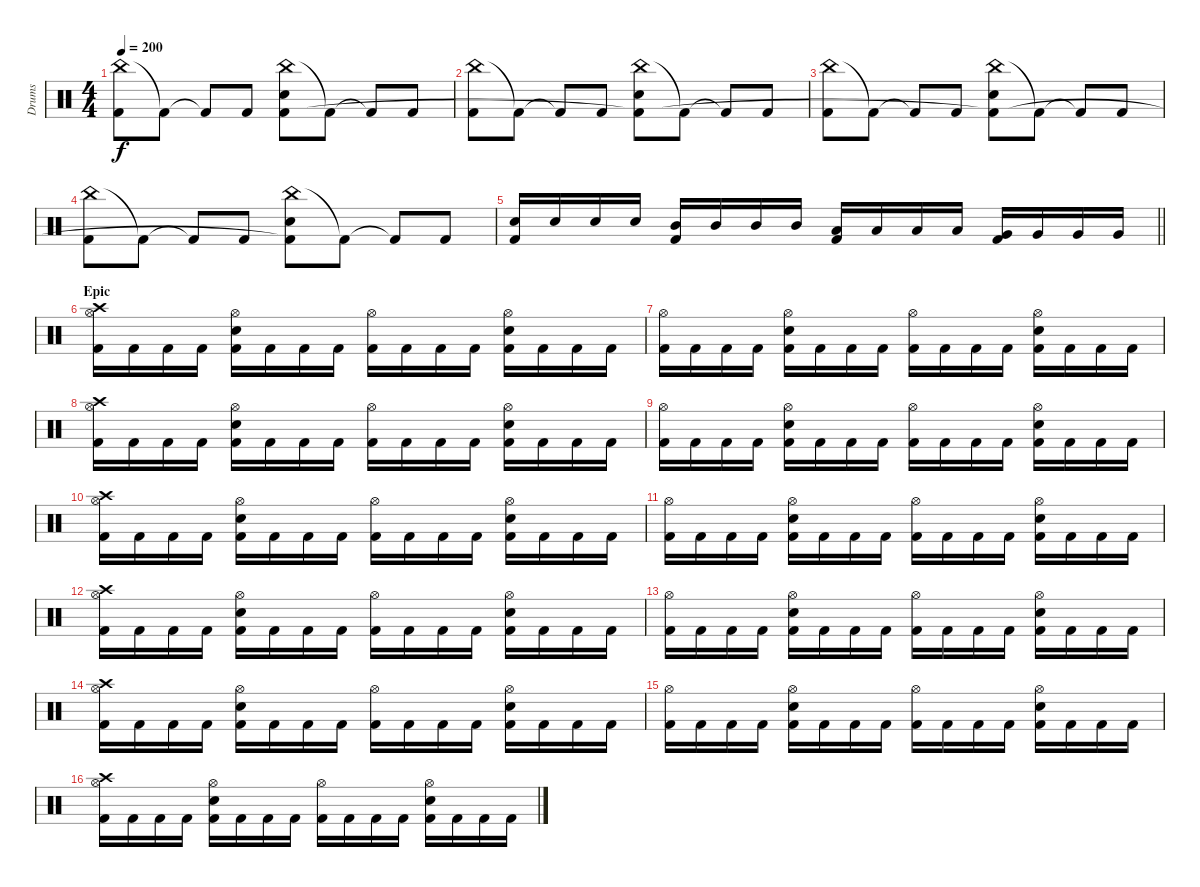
\track ("Drums" "Drums") {instrument percussion}
\staff {score}
\articulation defaults
\ts (4 4)
\tempo 200
\clef neutral
\ks c
("China (hit)" "Kick (hit) 2").8{dy f} "Kick (hit) 2"{t}.8 "Kick (hit) 2"{t}.8 "Kick (hit) 2".8 ("China (hit)" "Snare (hit) 2" "Kick (hit) 2"{t}).8 "Kick (hit) 2"{t}.8 "Kick (hit) 2"{t}.8 "Kick (hit) 2".8 |
("China (hit)" "Kick (hit) 2").8 "Kick (hit) 2"{t}.8 "Kick (hit) 2"{t}.8 "Kick (hit) 2".8 ("China (hit)" "Snare (hit) 2" "Kick (hit) 2"{t}).8 "Kick (hit) 2"{t}.8 "Kick (hit) 2"{t}.8 "Kick (hit) 2".8 |
("China (hit)" "Kick (hit) 2").8 "Kick (hit) 2"{t}.8 "Kick (hit) 2"{t}.8 "Kick (hit) 2".8 ("China (hit)" "Snare (hit) 2" "Kick (hit) 2"{t}).8 "Kick (hit) 2"{t}.8 "Kick (hit) 2"{t}.8 "Kick (hit) 2".8 |
("China (hit)" "Kick (hit) 2").8 "Kick (hit) 2"{t}.8 "Kick (hit) 2"{t}.8 "Kick (hit) 2".8 ("China (hit)" "Snare (hit) 2" "Kick (hit) 2"{t}).8 "Kick (hit) 2"{t}.8 "Kick (hit) 2"{t}.8 "Kick (hit) 2".8 |
\barLineRight lightlight
("Snare (hit) 2" "Kick (hit) 2").16 "Snare (hit) 2".16 "Snare (hit) 2".16 "Snare (hit) 2".16 ("Mid Tom (hit)" "Kick (hit) 2").16 "Mid Tom (hit)".16 "Mid Tom (hit)".16 "Mid Tom (hit)".16 ("Low Tom (hit)" "Kick (hit) 2").16 "Low Tom (hit)".16 "Low Tom (hit)".16 "Low Tom (hit)".16 ("Very Low Tom (hit)" "Kick (hit) 2").16 "Very Low Tom (hit)".16 "Very Low Tom (hit)".16 "Very Low Tom (hit)".16 |
\section ("" "Epic")
("Crash high (hit)" "Hi-Hat (open)" "Kick (hit) 2").16 "Kick (hit) 2".16 "Kick (hit) 2".16 "Kick (hit) 2".16 ("Hi-Hat (open)" "Snare (hit) 2" "Kick (hit) 2").16 "Kick (hit) 2".16 "Kick (hit) 2".16 "Kick (hit) 2".16 ("Hi-Hat (open)" "Kick (hit) 2").16 "Kick (hit) 2".16 "Kick (hit) 2".16 "Kick (hit) 2".16 ("Hi-Hat (open)" "Snare (hit) 2" "Kick (hit) 2").16 "Kick (hit) 2".16 "Kick (hit) 2".16 "Kick (hit) 2".16 |
("Hi-Hat (open)" "Kick (hit) 2").16 "Kick (hit) 2".16 "Kick (hit) 2".16 "Kick (hit) 2".16 ("Hi-Hat (open)" "Snare (hit) 2" "Kick (hit) 2").16 "Kick (hit) 2".16 "Kick (hit) 2".16 "Kick (hit) 2".16 ("Hi-Hat (open)" "Kick (hit) 2").16 "Kick (hit) 2".16 "Kick (hit) 2".16 "Kick (hit) 2".16 ("Hi-Hat (open)" "Snare (hit) 2" "Kick (hit) 2").16 "Kick (hit) 2".16 "Kick (hit) 2".16 "Kick (hit) 2".16 |
("Crash high (hit)" "Hi-Hat (open)" "Kick (hit) 2").16 "Kick (hit) 2".16 "Kick (hit) 2".16 "Kick (hit) 2".16 ("Hi-Hat (open)" "Snare (hit) 2" "Kick (hit) 2").16 "Kick (hit) 2".16 "Kick (hit) 2".16 "Kick (hit) 2".16 ("Hi-Hat (open)" "Kick (hit) 2").16 "Kick (hit) 2".16 "Kick (hit) 2".16 "Kick (hit) 2".16 ("Hi-Hat (open)" "Snare (hit) 2" "Kick (hit) 2").16 "Kick (hit) 2".16 "Kick (hit) 2".16 "Kick (hit) 2".16 |
("Hi-Hat (open)" "Kick (hit) 2").16 "Kick (hit) 2".16 "Kick (hit) 2".16 "Kick (hit) 2".16 ("Hi-Hat (open)" "Snare (hit) 2" "Kick (hit) 2").16 "Kick (hit) 2".16 "Kick (hit) 2".16 "Kick (hit) 2".16 ("Hi-Hat (open)" "Kick (hit) 2").16 "Kick (hit) 2".16 "Kick (hit) 2".16 "Kick (hit) 2".16 ("Hi-Hat (open)" "Snare (hit) 2" "Kick (hit) 2").16 "Kick (hit) 2".16 "Kick (hit) 2".16 "Kick (hit) 2".16 |
("Crash high (hit)" "Hi-Hat (open)" "Kick (hit) 2").16 "Kick (hit) 2".16 "Kick (hit) 2".16 "Kick (hit) 2".16 ("Hi-Hat (open)" "Snare (hit) 2" "Kick (hit) 2").16 "Kick (hit) 2".16 "Kick (hit) 2".16 "Kick (hit) 2".16 ("Hi-Hat (open)" "Kick (hit) 2").16 "Kick (hit) 2".16 "Kick (hit) 2".16 "Kick (hit) 2".16 ("Hi-Hat (open)" "Snare (hit) 2" "Kick (hit) 2").16 "Kick (hit) 2".16 "Kick (hit) 2".16 "Kick (hit) 2".16 |
("Hi-Hat (open)" "Kick (hit) 2").16 "Kick (hit) 2".16 "Kick (hit) 2".16 "Kick (hit) 2".16 ("Hi-Hat (open)" "Snare (hit) 2" "Kick (hit) 2").16 "Kick (hit) 2".16 "Kick (hit) 2".16 "Kick (hit) 2".16 ("Hi-Hat (open)" "Kick (hit) 2").16 "Kick (hit) 2".16 "Kick (hit) 2".16 "Kick (hit) 2".16 ("Hi-Hat (open)" "Snare (hit) 2" "Kick (hit) 2").16 "Kick (hit) 2".16 "Kick (hit) 2".16 "Kick (hit) 2".16 |
("Crash high (hit)" "Hi-Hat (open)" "Kick (hit) 2").16 "Kick (hit) 2".16 "Kick (hit) 2".16 "Kick (hit) 2".16 ("Hi-Hat (open)" "Snare (hit) 2" "Kick (hit) 2").16 "Kick (hit) 2".16 "Kick (hit) 2".16 "Kick (hit) 2".16 ("Hi-Hat (open)" "Kick (hit) 2").16 "Kick (hit) 2".16 "Kick (hit) 2".16 "Kick (hit) 2".16 ("Hi-Hat (open)" "Snare (hit) 2" "Kick (hit) 2").16 "Kick (hit) 2".16 "Kick (hit) 2".16 "Kick (hit) 2".16 |
("Hi-Hat (open)" "Kick (hit) 2").16 "Kick (hit) 2".16 "Kick (hit) 2".16 "Kick (hit) 2".16 ("Hi-Hat (open)" "Snare (hit) 2" "Kick (hit) 2").16 "Kick (hit) 2".16 "Kick (hit) 2".16 "Kick (hit) 2".16 ("Hi-Hat (open)" "Kick (hit) 2").16 "Kick (hit) 2".16 "Kick (hit) 2".16 "Kick (hit) 2".16 ("Hi-Hat (open)" "Snare (hit) 2" "Kick (hit) 2").16 "Kick (hit) 2".16 "Kick (hit) 2".16 "Kick (hit) 2".16 |
("Crash high (hit)" "Hi-Hat (open)" "Kick (hit) 2").16 "Kick (hit) 2".16 "Kick (hit) 2".16 "Kick (hit) 2".16 ("Hi-Hat (open)" "Snare (hit) 2" "Kick (hit) 2").16 "Kick (hit) 2".16 "Kick (hit) 2".16 "Kick (hit) 2".16 ("Hi-Hat (open)" "Kick (hit) 2").16 "Kick (hit) 2".16 "Kick (hit) 2".16 "Kick (hit) 2".16 ("Hi-Hat (open)" "Snare (hit) 2" "Kick (hit) 2").16 "Kick (hit) 2".16 "Kick (hit) 2".16 "Kick (hit) 2".16 |
("Hi-Hat (open)" "Kick (hit) 2").16 "Kick (hit) 2".16 "Kick (hit) 2".16 "Kick (hit) 2".16 ("Hi-Hat (open)" "Snare (hit) 2" "Kick (hit) 2").16 "Kick (hit) 2".16 "Kick (hit) 2".16 "Kick (hit) 2".16 ("Hi-Hat (open)" "Kick (hit) 2").16 "Kick (hit) 2".16 "Kick (hit) 2".16 "Kick (hit) 2".16 ("Hi-Hat (open)" "Snare (hit) 2" "Kick (hit) 2").16 "Kick (hit) 2".16 "Kick (hit) 2".16 "Kick (hit) 2".16 |
("Crash high (hit)" "Hi-Hat (open)" "Kick (hit) 2").16 "Kick (hit) 2".16 "Kick (hit) 2".16 "Kick (hit) 2".16 ("Hi-Hat (open)" "Snare (hit) 2" "Kick (hit) 2").16 "Kick (hit) 2".16 "Kick (hit) 2".16 "Kick (hit) 2".16 ("Hi-Hat (open)" "Kick (hit) 2").16 "Kick (hit) 2".16 "Kick (hit) 2".16 "Kick (hit) 2".16 ("Hi-Hat (open)" "Snare (hit) 2" "Kick (hit) 2").16 "Kick (hit) 2".16 "Kick (hit) 2".16 "Kick (hit) 2".16
